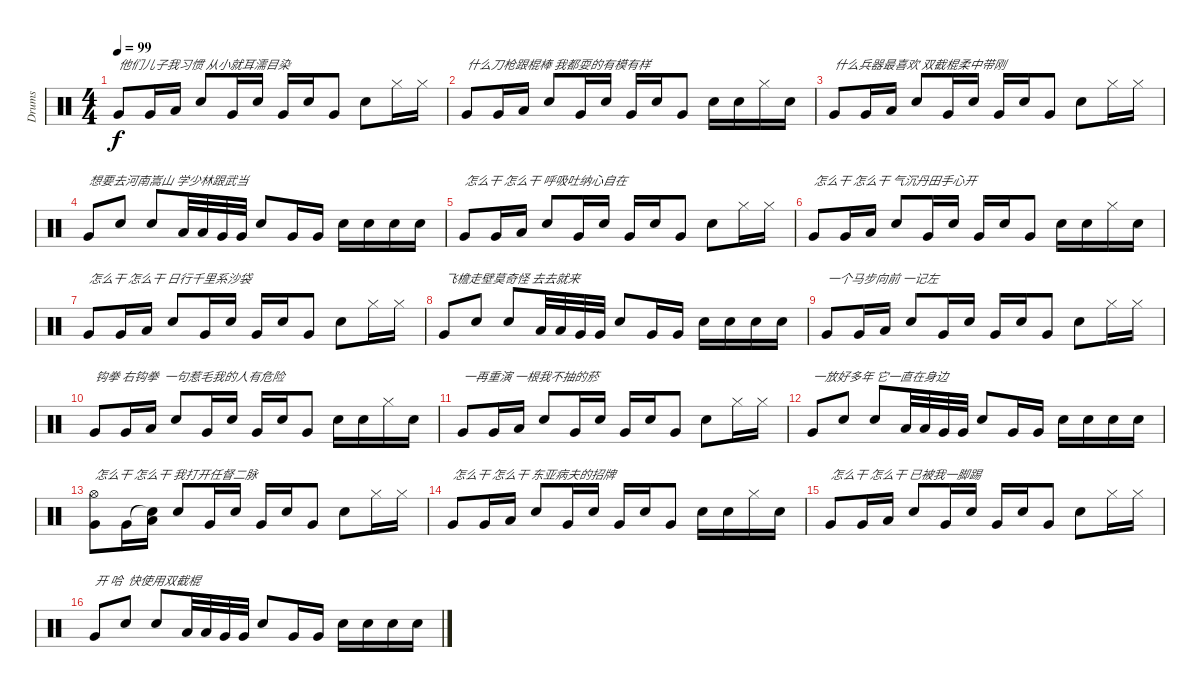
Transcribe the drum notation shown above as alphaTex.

\track ("Drums" "Drums") {instrument percussion}
\staff {score}
\articulation defaults
\ts (4 4)
\tempo 99
\clef neutral
\ks c "Very Low Tom (hit)".8{txt "他们儿子我习惯 从小就耳濡目染" dy f} "Very Low Tom (hit)".16 "Low Floor Tom (hit)".16 "Snare (hit) 2".8 "Very Low Tom (hit)".16 "Snare (hit) 2".16 "Very Low Tom (hit)".16 "Snare (hit) 2".16 "Very Low Tom (hit)".8 "Snare (hit) 2".8 "Hi-Hat (closed)".16 "Hi-Hat (closed)".16
|
"Very Low Tom (hit)".8{txt "什么刀枪跟棍棒 我都耍的有模有样"} "Very Low Tom (hit)".16 "Low Floor Tom (hit)".16 "Snare (hit) 2".8 "Very Low Tom (hit)".16 "Snare (hit) 2".16 "Very Low Tom (hit)".16 "Snare (hit) 2".16 "Very Low Tom (hit)".8 "Snare (hit) 2".16 "Snare (hit) 2".16 "Hi-Hat (closed)".16 "Snare (hit) 2".16 |
"Very Low Tom (hit)".8{txt "什么兵器最喜欢 双截棍柔中带刚"} "Very Low Tom (hit)".16 "Low Floor Tom (hit)".16 "Snare (hit) 2".8 "Very Low Tom (hit)".16 "Snare (hit) 2".16 "Very Low Tom (hit)".16 "Snare (hit) 2".16 "Very Low Tom (hit)".8 "Snare (hit) 2".8 "Hi-Hat (closed)".16 "Hi-Hat (closed)".16 |
"Very Low Tom (hit)".8{txt "想要去河南嵩山 学少林跟武当"} "Snare (hit) 2".8 "Snare (hit) 2".8 "Low Tom (hit)".32 "Low Tom (hit)".32 "Very Low Tom (hit)".32 "Very Low Tom (hit)".32 "Snare (hit) 2".8 "Very Low Tom (hit)".16 "Very Low Tom (hit)".16 "Snare (hit) 2".16 "Snare (hit) 2".16 "Snare (hit) 2".16 "Snare (hit) 2".16 |
"Very Low Tom (hit)".8{txt "怎么干 怎么干 呼吸吐纳心自在"} "Very Low Tom (hit)".16 "Low Floor Tom (hit)".16 "Snare (hit) 2".8 "Very Low Tom (hit)".16 "Snare (hit) 2".16 "Very Low Tom (hit)".16 "Snare (hit) 2".16 "Very Low Tom (hit)".8 "Snare (hit) 2".8 "Hi-Hat (closed)".16 "Hi-Hat (closed)".16 |
"Very Low Tom (hit)".8{txt "怎么干 怎么干 气沉丹田手心开"} "Very Low Tom (hit)".16 "Low Floor Tom (hit)".16 "Snare (hit) 2".8 "Very Low Tom (hit)".16 "Snare (hit) 2".16 "Very Low Tom (hit)".16 "Snare (hit) 2".16 "Very Low Tom (hit)".8 "Snare (hit) 2".16 "Snare (hit) 2".16 "Hi-Hat (closed)".16 "Snare (hit) 2".16 |
"Very Low Tom (hit)".8{txt "怎么干 怎么干 日行千里系沙袋"} "Very Low Tom (hit)".16 "Low Floor Tom (hit)".16 "Snare (hit) 2".8 "Very Low Tom (hit)".16 "Snare (hit) 2".16 "Very Low Tom (hit)".16 "Snare (hit) 2".16 "Very Low Tom (hit)".8 "Snare (hit) 2".8 "Hi-Hat (closed)".16 "Hi-Hat (closed)".16 |
"Very Low Tom (hit)".8{txt "飞檐走壁莫奇怪 去去就来"} "Snare (hit) 2".8 "Snare (hit) 2".8 "Low Tom (hit)".32 "Low Tom (hit)".32 "Very Low Tom (hit)".32 "Very Low Tom (hit)".32 "Snare (hit) 2".8 "Very Low Tom (hit)".16 "Very Low Tom (hit)".16 "Snare (hit) 2".16 "Snare (hit) 2".16 "Snare (hit) 2".16 "Snare (hit) 2".16 |
"Very Low Tom (hit)".8{txt "一个马步向前 一记左"} "Very Low Tom (hit)".16 "Low Floor Tom (hit)".16 "Snare (hit) 2".8 "Very Low Tom (hit)".16 "Snare (hit) 2".16 "Very Low Tom (hit)".16 "Snare (hit) 2".16 "Very Low Tom (hit)".8 "Snare (hit) 2".8 "Hi-Hat (closed)".16 "Hi-Hat (closed)".16 |
"Very Low Tom (hit)".8{txt "钩拳 右钩拳  一句惹毛我的人有危险"} "Very Low Tom (hit)".16 "Low Floor Tom (hit)".16 "Snare (hit) 2".8 "Very Low Tom (hit)".16 "Snare (hit) 2".16 "Very Low Tom (hit)".16 "Snare (hit) 2".16 "Very Low Tom (hit)".8 "Snare (hit) 2".16 "Snare (hit) 2".16 "Hi-Hat (closed)".16 "Snare (hit) 2".16 |
"Very Low Tom (hit)".8{txt "一再重演 一根我不抽的菸"} "Very Low Tom (hit)".16 "Low Floor Tom (hit)".16 "Snare (hit) 2".8 "Very Low Tom (hit)".16 "Snare (hit) 2".16 "Very Low Tom (hit)".16 "Snare (hit) 2".16 "Very Low Tom (hit)".8 "Snare (hit) 2".8 "Hi-Hat (closed)".16 "Hi-Hat (closed)".16 |
"Very Low Tom (hit)".8{txt "一放好多年 它一直在身边"} "Snare (hit) 2".8 "Snare (hit) 2".8 "Low Tom (hit)".32 "Low Tom (hit)".32 "Very Low Tom (hit)".32 "Very Low Tom (hit)".32 "Snare (hit) 2".8 "Very Low Tom (hit)".16 "Very Low Tom (hit)".16 "Snare (hit) 2".16 "Snare (hit) 2".16 "Snare (hit) 2".16 "Snare (hit) 2".16 |
("Hi-Hat (open)" "Very Low Tom (hit)").8{txt "怎么干 怎么干 我打开任督二脉"} "Very Low Tom (hit)".16 ("Snare (hit)"{t} "Low Floor Tom (hit)").16 "Snare (hit) 2".8 "Very Low Tom (hit)".16 "Snare (hit) 2".16 "Very Low Tom (hit)".16 "Snare (hit) 2".16 "Very Low Tom (hit)".8 "Snare (hit) 2".8 "Hi-Hat (closed)".16 "Hi-Hat (closed)".16 |
"Very Low Tom (hit)".8{txt "怎么干 怎么干 东亚病夫的招牌"} "Very Low Tom (hit)".16 "Low Floor Tom (hit)".16 "Snare (hit) 2".8 "Very Low Tom (hit)".16 "Snare (hit) 2".16 "Very Low Tom (hit)".16 "Snare (hit) 2".16 "Very Low Tom (hit)".8 "Snare (hit) 2".16 "Snare (hit) 2".16 "Hi-Hat (closed)".16 "Snare (hit) 2".16 |
"Very Low Tom (hit)".8{txt "怎么干 怎么干 已被我一脚踢"} "Very Low Tom (hit)".16 "Low Floor Tom (hit)".16 "Snare (hit) 2".8 "Very Low Tom (hit)".16 "Snare (hit) 2".16 "Very Low Tom (hit)".16 "Snare (hit) 2".16 "Very Low Tom (hit)".8 "Snare (hit) 2".8 "Hi-Hat (closed)".16 "Hi-Hat (closed)".16 |
"Very Low Tom (hit)".8{txt "开 哈  快使用双截棍"} "Snare (hit) 2".8 "Snare (hit) 2".8 "Low Tom (hit)".32 "Low Tom (hit)".32 "Very Low Tom (hit)".32 "Very Low Tom (hit)".32 "Snare (hit) 2".8 "Very Low Tom (hit)".16 "Very Low Tom (hit)".16 "Snare (hit) 2".16 "Snare (hit) 2".16 "Snare (hit) 2".16 "Snare (hit) 2".16
